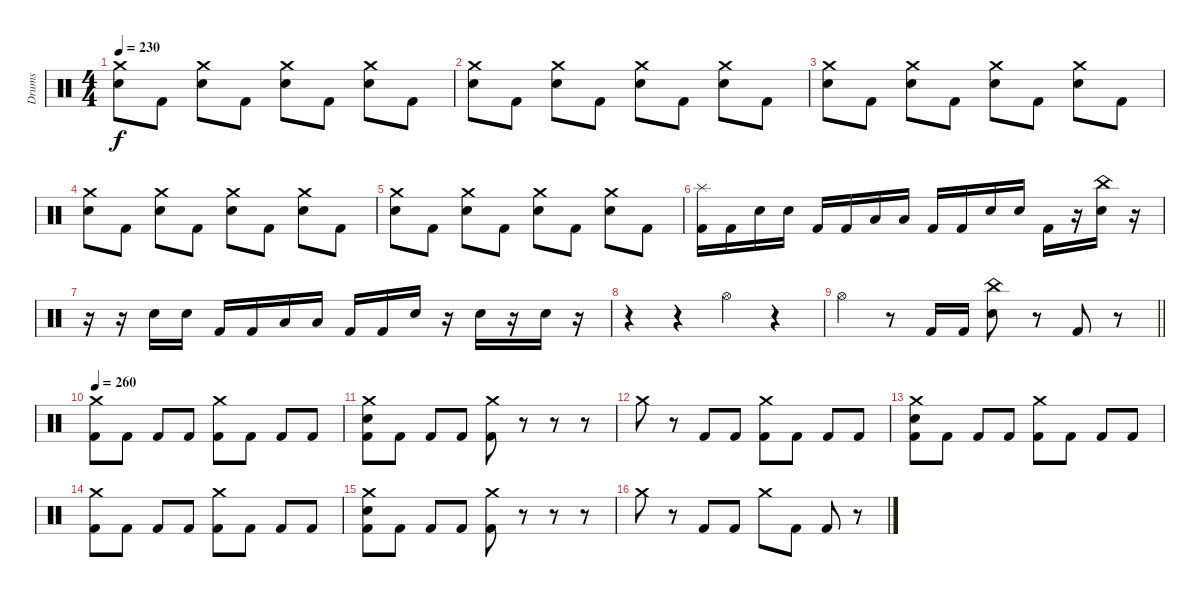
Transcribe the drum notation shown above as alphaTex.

\track ("Drums" "Drums") {instrument percussion}
\staff {score}
\articulation defaults
\ts (4 4)
\tempo 230
\clef neutral
\ks c
("Crash medium (hit)" "Snare (hit) 2").8{dy f} "Kick (hit) 2".8 ("Crash medium (hit)" "Snare (hit) 2").8 "Kick (hit) 2".8 ("Crash medium (hit)" "Snare (hit) 2").8 "Kick (hit) 2".8 ("Crash medium (hit)" "Snare (hit) 2").8 "Kick (hit) 2".8 |
("Crash medium (hit)" "Snare (hit) 2").8 "Kick (hit) 2".8 ("Crash medium (hit)" "Snare (hit) 2").8 "Kick (hit) 2".8 ("Crash medium (hit)" "Snare (hit) 2").8 "Kick (hit) 2".8 ("Crash medium (hit)" "Snare (hit) 2").8 "Kick (hit) 2".8 |
("Crash medium (hit)" "Snare (hit) 2").8 "Kick (hit) 2".8 ("Crash medium (hit)" "Snare (hit) 2").8 "Kick (hit) 2".8 ("Crash medium (hit)" "Snare (hit) 2").8 "Kick (hit) 2".8 ("Crash medium (hit)" "Snare (hit) 2").8 "Kick (hit) 2".8 |
("Crash medium (hit)" "Snare (hit) 2").8 "Kick (hit) 2".8 ("Crash medium (hit)" "Snare (hit) 2").8 "Kick (hit) 2".8 ("Crash medium (hit)" "Snare (hit) 2").8 "Kick (hit) 2".8 ("Crash medium (hit)" "Snare (hit) 2").8 "Kick (hit) 2".8 |
("Crash medium (hit)" "Snare (hit) 2").8 "Kick (hit) 2".8 ("Crash medium (hit)" "Snare (hit) 2").8 "Kick (hit) 2".8 ("Crash medium (hit)" "Snare (hit) 2").8 "Kick (hit) 2".8 ("Crash medium (hit)" "Snare (hit) 2").8 "Kick (hit) 2".8 |
("Splash (hit)" "Kick (hit) 2").16 "Kick (hit) 2".16 "Snare (hit) 2".16 "Snare (hit) 2".16 "Kick (hit) 2".16 "Kick (hit) 2".16 "Low Tom (hit)".16 "Low Tom (hit)".16 "Kick (hit) 2".16 "Kick (hit) 2".16 "Snare (hit) 2".16 "Snare (hit) 2".16 "Kick (hit) 2".16 r.16 ("China (hit)" "Snare (hit) 2").16 r.16 |
r.16 r.16 "Snare (hit) 2".16 "Snare (hit) 2".16 "Kick (hit) 2".16 "Kick (hit) 2".16 "Low Tom (hit)".16 "Low Tom (hit)".16 "Kick (hit) 2".16 "Kick (hit) 2".16 "Snare (hit) 2".16 r.16 "Snare (hit) 2".16 r.16 "Snare (hit) 2".16 r.16 |
r.4 r.4 "Hi-Hat (open)".4 r.4 |
\barLineRight lightlight "Hi-Hat (open)".4
r.8 "Kick (hit) 2".16 "Kick (hit) 2".16 ("China (hit)" "Snare (hit) 2").8 r.8 "Kick (hit) 2".8 r.8 |
\tempo 260
("Crash medium (hit)" "Kick (hit) 2").8 "Kick (hit) 2".8 "Kick (hit) 2".8 "Kick (hit) 2".8 ("Crash medium (hit)" "Kick (hit) 2").8 "Kick (hit) 2".8 "Kick (hit) 2".8 "Kick (hit) 2".8 |
("Crash medium (hit)" "Snare (hit) 2" "Kick (hit) 2").8 "Kick (hit) 2".8 "Kick (hit) 2".8 "Kick (hit) 2".8 ("Crash medium (hit)" "Kick (hit) 2").8 r.8 r.8 r.8 |
"Crash medium (hit)".8 r.8 "Kick (hit) 2".8 "Kick (hit) 2".8 ("Crash medium (hit)" "Kick (hit) 2").8 "Kick (hit) 2".8 "Kick (hit) 2".8 "Kick (hit) 2".8 |
("Crash medium (hit)" "Snare (hit) 2" "Kick (hit) 2").8 "Kick (hit) 2".8 "Kick (hit) 2".8 "Kick (hit) 2".8 ("Crash medium (hit)" "Kick (hit) 2").8 "Kick (hit) 2".8 "Kick (hit) 2".8 "Kick (hit) 2".8 |
("Crash medium (hit)" "Kick (hit) 2").8 "Kick (hit) 2".8 "Kick (hit) 2".8 "Kick (hit) 2".8 ("Crash medium (hit)" "Kick (hit) 2").8 "Kick (hit) 2".8 "Kick (hit) 2".8 "Kick (hit) 2".8 |
("Crash medium (hit)" "Snare (hit) 2" "Kick (hit) 2").8 "Kick (hit) 2".8 "Kick (hit) 2".8 "Kick (hit) 2".8 ("Crash medium (hit)" "Kick (hit) 2").8 r.8 r.8 r.8 |
"Crash medium (hit)".8 r.8 "Kick (hit) 2".8 "Kick (hit) 2".8 "Crash medium (hit)".8 "Kick (hit) 2".8 "Kick (hit) 2".8 r.8
